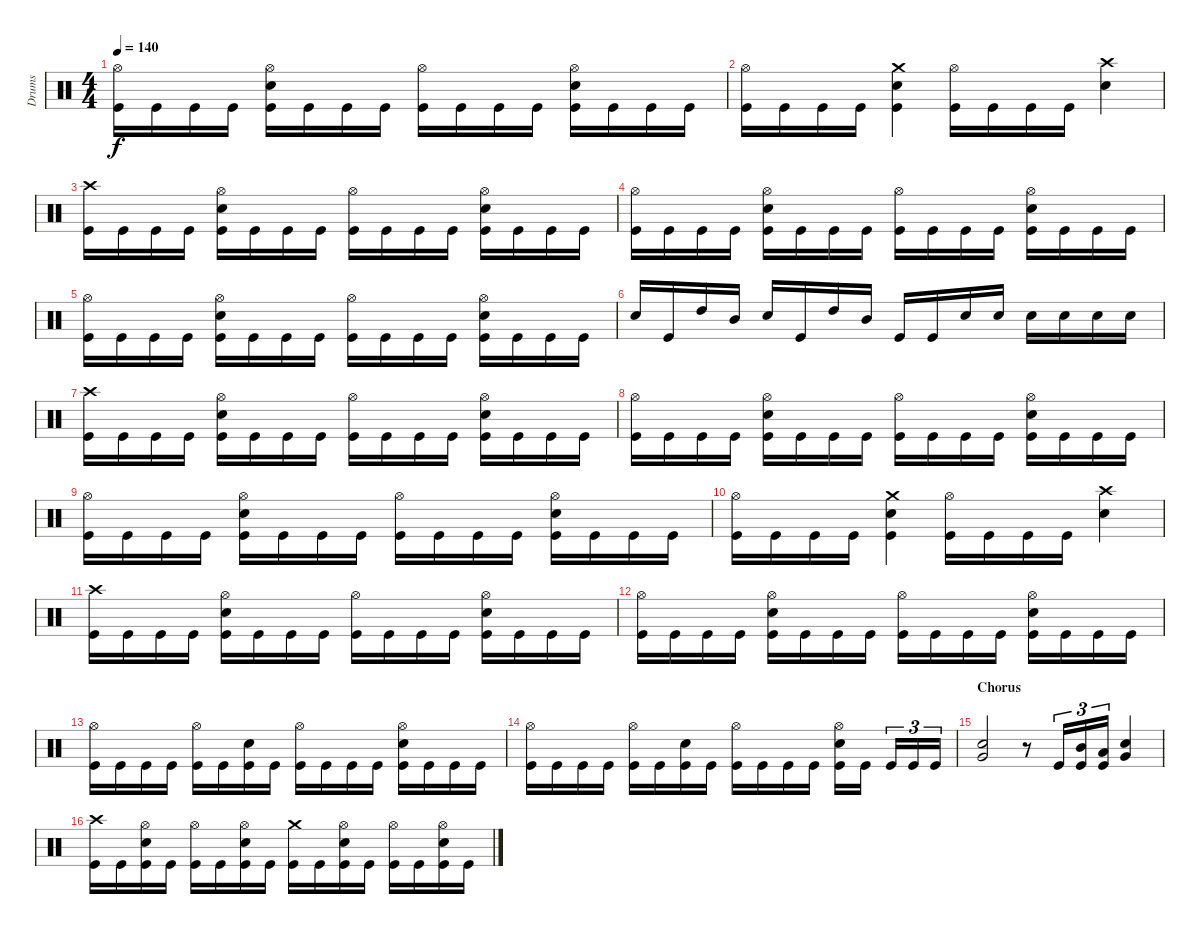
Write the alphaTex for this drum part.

\track ("Drums" "Drums") {instrument percussion}
\staff {score}
\articulation defaults
\ts (4 4)
\tempo 140
\clef neutral
\ks c
("Hi-Hat (open)" "Kick (hit)").16{dy f} "Kick (hit)".16 "Kick (hit)".16 "Kick (hit)".16 ("Hi-Hat (open)" "Electric Snare (hit)" "Kick (hit)").16 "Kick (hit)".16 "Kick (hit)".16 "Kick (hit)".16 ("Hi-Hat (open)" "Kick (hit)").16 "Kick (hit)".16 "Kick (hit)".16 "Kick (hit)".16 ("Hi-Hat (open)" "Electric Snare (hit)" "Kick (hit)").16 "Kick (hit)".16 "Kick (hit)".16 "Kick (hit)".16 |
("Hi-Hat (open)" "Kick (hit)").16 "Kick (hit)".16 "Kick (hit)".16 "Kick (hit)".16 ("Crash medium (hit)" "Electric Snare (hit)" "Kick (hit)").4 ("Hi-Hat (open)" "Kick (hit)").16 "Kick (hit)".16 "Kick (hit)".16 "Kick (hit)".16 ("Crash high (hit)" "Electric Snare (hit)").4 |
("Crash high (hit)" "Kick (hit)").16 "Kick (hit)".16 "Kick (hit)".16 "Kick (hit)".16 ("Hi-Hat (open)" "Electric Snare (hit)" "Kick (hit)").16 "Kick (hit)".16 "Kick (hit)".16 "Kick (hit)".16 ("Hi-Hat (open)" "Kick (hit)").16 "Kick (hit)".16 "Kick (hit)".16 "Kick (hit)".16 ("Hi-Hat (open)" "Electric Snare (hit)" "Kick (hit)").16 "Kick (hit)".16 "Kick (hit)".16 "Kick (hit)".16 |
("Hi-Hat (open)" "Kick (hit)").16 "Kick (hit)".16 "Kick (hit)".16 "Kick (hit)".16 ("Hi-Hat (open)" "Electric Snare (hit)" "Kick (hit)").16 "Kick (hit)".16 "Kick (hit)".16 "Kick (hit)".16 ("Hi-Hat (open)" "Kick (hit)").16 "Kick (hit)".16 "Kick (hit)".16 "Kick (hit)".16 ("Hi-Hat (open)" "Electric Snare (hit)" "Kick (hit)").16 "Kick (hit)".16 "Kick (hit)".16 "Kick (hit)".16 |
("Hi-Hat (open)" "Kick (hit)").16 "Kick (hit)".16 "Kick (hit)".16 "Kick (hit)".16 ("Hi-Hat (open)" "Electric Snare (hit)" "Kick (hit)").16 "Kick (hit)".16 "Kick (hit)".16 "Kick (hit)".16 ("Hi-Hat (open)" "Kick (hit)").16 "Kick (hit)".16 "Kick (hit)".16 "Kick (hit)".16 ("Hi-Hat (open)" "Electric Snare (hit)" "Kick (hit)").16 "Kick (hit)".16 "Kick (hit)".16 "Kick (hit)".16 |
"Electric Snare (hit)".16 "Kick (hit)".16 "High Tom (hit)".16 "Mid Tom (hit)".16 "Electric Snare (hit)".16 "Kick (hit)".16 "High Tom (hit)".16 "Mid Tom (hit)".16 "Kick (hit)".16 "Kick (hit)".16 "Electric Snare (hit)".16 "Electric Snare (hit)".16 "Electric Snare (hit)".16 "Electric Snare (hit)".16 "Electric Snare (hit)".16 "Electric Snare (hit)".16 |
("Crash high (hit)" "Kick (hit)").16 "Kick (hit)".16 "Kick (hit)".16 "Kick (hit)".16 ("Hi-Hat (open)" "Electric Snare (hit)" "Kick (hit)").16 "Kick (hit)".16 "Kick (hit)".16 "Kick (hit)".16 ("Hi-Hat (open)" "Kick (hit)").16 "Kick (hit)".16 "Kick (hit)".16 "Kick (hit)".16 ("Hi-Hat (open)" "Electric Snare (hit)" "Kick (hit)").16 "Kick (hit)".16 "Kick (hit)".16 "Kick (hit)".16 |
("Hi-Hat (open)" "Kick (hit)").16 "Kick (hit)".16 "Kick (hit)".16 "Kick (hit)".16 ("Hi-Hat (open)" "Electric Snare (hit)" "Kick (hit)").16 "Kick (hit)".16 "Kick (hit)".16 "Kick (hit)".16 ("Hi-Hat (open)" "Kick (hit)").16 "Kick (hit)".16 "Kick (hit)".16 "Kick (hit)".16 ("Hi-Hat (open)" "Electric Snare (hit)" "Kick (hit)").16 "Kick (hit)".16 "Kick (hit)".16 "Kick (hit)".16 |
("Hi-Hat (open)" "Kick (hit)").16 "Kick (hit)".16 "Kick (hit)".16 "Kick (hit)".16 ("Hi-Hat (open)" "Electric Snare (hit)" "Kick (hit)").16 "Kick (hit)".16 "Kick (hit)".16 "Kick (hit)".16 ("Hi-Hat (open)" "Kick (hit)").16 "Kick (hit)".16 "Kick (hit)".16 "Kick (hit)".16 ("Hi-Hat (open)" "Electric Snare (hit)" "Kick (hit)").16 "Kick (hit)".16 "Kick (hit)".16 "Kick (hit)".16 |
("Hi-Hat (open)" "Kick (hit)").16 "Kick (hit)".16 "Kick (hit)".16 "Kick (hit)".16 ("Crash medium (hit)" "Electric Snare (hit)" "Kick (hit)").4 ("Hi-Hat (open)" "Kick (hit)").16 "Kick (hit)".16 "Kick (hit)".16 "Kick (hit)".16 ("Crash high (hit)" "Electric Snare (hit)").4 |
("Crash high (hit)" "Kick (hit)").16 "Kick (hit)".16 "Kick (hit)".16 "Kick (hit)".16 ("Hi-Hat (open)" "Electric Snare (hit)" "Kick (hit)").16 "Kick (hit)".16 "Kick (hit)".16 "Kick (hit)".16 ("Hi-Hat (open)" "Kick (hit)").16 "Kick (hit)".16 "Kick (hit)".16 "Kick (hit)".16 ("Hi-Hat (open)" "Electric Snare (hit)" "Kick (hit)").16 "Kick (hit)".16 "Kick (hit)".16 "Kick (hit)".16 |
("Hi-Hat (open)" "Kick (hit)").16 "Kick (hit)".16 "Kick (hit)".16 "Kick (hit)".16 ("Hi-Hat (open)" "Electric Snare (hit)" "Kick (hit)").16 "Kick (hit)".16 "Kick (hit)".16 "Kick (hit)".16 ("Hi-Hat (open)" "Kick (hit)").16 "Kick (hit)".16 "Kick (hit)".16 "Kick (hit)".16 ("Hi-Hat (open)" "Electric Snare (hit)" "Kick (hit)").16 "Kick (hit)".16 "Kick (hit)".16 "Kick (hit)".16 |
("Hi-Hat (open)" "Kick (hit)").16 "Kick (hit)".16 "Kick (hit)".16 "Kick (hit)".16 ("Hi-Hat (open)" "Kick (hit)").16 "Kick (hit)".16 ("Electric Snare (hit)" "Kick (hit)").16 "Kick (hit)".16 ("Hi-Hat (open)" "Kick (hit)").16 "Kick (hit)".16 "Kick (hit)".16 "Kick (hit)".16 ("Hi-Hat (open)" "Electric Snare (hit)" "Kick (hit)").16 "Kick (hit)".16 "Kick (hit)".16 "Kick (hit)".16 |
("Hi-Hat (open)" "Kick (hit)").16 "Kick (hit)".16 "Kick (hit)".16 "Kick (hit)".16 ("Hi-Hat (open)" "Kick (hit)").16 "Kick (hit)".16 ("Electric Snare (hit)" "Kick (hit)").16 "Kick (hit)".16 ("Hi-Hat (open)" "Kick (hit)").16 "Kick (hit)".16 "Kick (hit)".16 "Kick (hit)".16 ("Hi-Hat (open)" "Electric Snare (hit)" "Kick (hit)").16 "Kick (hit)".16 "Kick (hit)".16{tu (3 2)} "Kick (hit)".16{tu (3 2)} "Kick (hit)".16{tu (3 2)} |
\section ("" "Chorus")
("Very Low Tom (hit)" "Electric Snare (hit)").2 r.8 "Kick (hit)".16{tu (3 2)} ("Mid Tom (hit)" "Kick (hit)").16{tu (3 2)} ("Low Tom (hit)" "Kick (hit)").16{tu (3 2)} ("Very Low Tom (hit)" "Electric Snare (hit)").4 |
("Crash high (hit)" "Kick (hit)").16 "Kick (hit)".16 ("Hi-Hat (open)" "Electric Snare (hit)" "Kick (hit)").16 "Kick (hit)".16 ("Hi-Hat (open)" "Kick (hit)").16 "Kick (hit)".16 ("Hi-Hat (open)" "Electric Snare (hit)" "Kick (hit)").16 "Kick (hit)".16 ("Crash medium (hit)" "Kick (hit)").16 "Kick (hit)".16 ("Hi-Hat (open)" "Electric Snare (hit)" "Kick (hit)").16 "Kick (hit)".16 ("Hi-Hat (open)" "Kick (hit)").16 "Kick (hit)".16 ("Hi-Hat (open)" "Electric Snare (hit)" "Kick (hit)").16 "Kick (hit)".16
